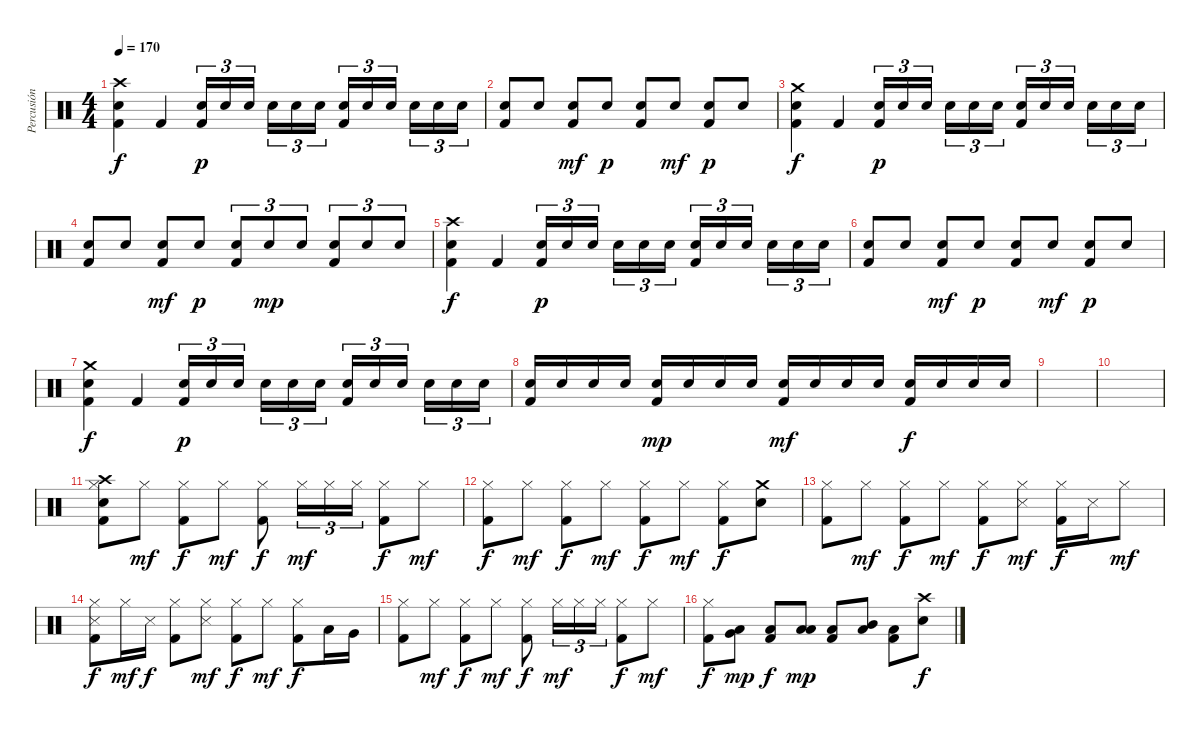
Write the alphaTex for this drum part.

\track ("Percusión" "Percusión") {instrument percussion}
\staff {score}
\articulation defaults
\ts (4 4)
\tempo 170
\clef neutral
\ks c
("Crash high (hit)" "Electric Snare (hit)" "Kick (hit) 2").4{dy f} "Kick (hit) 2".4 ("Electric Snare (hit)" "Kick (hit) 2").16{tu (3 2) dy p} "Electric Snare (hit)".16{tu (3 2)} "Electric Snare (hit)".16{tu (3 2) beam splitsecondary} "Electric Snare (hit)".16{tu (3 2)} "Electric Snare (hit)".16{tu (3 2)} "Electric Snare (hit)".16{tu (3 2)} ("Electric Snare (hit)" "Kick (hit) 2").16{tu (3 2)} "Electric Snare (hit)".16{tu (3 2)} "Electric Snare (hit)".16{tu (3 2) beam splitsecondary} "Electric Snare (hit)".16{tu (3 2)} "Electric Snare (hit)".16{tu (3 2)} "Electric Snare (hit)".16{tu (3 2)} |
("Electric Snare (hit)" "Kick (hit) 2").8 "Electric Snare (hit)".8 ("Electric Snare (hit)" "Kick (hit) 2").8{dy mf} "Electric Snare (hit)".8{dy p} ("Electric Snare (hit)" "Kick (hit) 2").8 "Electric Snare (hit)".8{dy mf} ("Electric Snare (hit)" "Kick (hit) 2").8{dy p} "Electric Snare (hit)".8 |
("Crash medium (hit)" "Electric Snare (hit)" "Kick (hit) 2").4{dy f} "Kick (hit) 2".4 ("Electric Snare (hit)" "Kick (hit) 2").16{tu (3 2) dy p} "Electric Snare (hit)".16{tu (3 2)} "Electric Snare (hit)".16{tu (3 2) beam splitsecondary} "Electric Snare (hit)".16{tu (3 2)} "Electric Snare (hit)".16{tu (3 2)} "Electric Snare (hit)".16{tu (3 2)} ("Electric Snare (hit)" "Kick (hit) 2").16{tu (3 2)} "Electric Snare (hit)".16{tu (3 2)} "Electric Snare (hit)".16{tu (3 2) beam splitsecondary} "Electric Snare (hit)".16{tu (3 2)} "Electric Snare (hit)".16{tu (3 2)} "Electric Snare (hit)".16{tu (3 2)} |
("Electric Snare (hit)" "Kick (hit) 2").8 "Electric Snare (hit)".8 ("Electric Snare (hit)" "Kick (hit) 2").8{dy mf} "Electric Snare (hit)".8{dy p} ("Electric Snare (hit)" "Kick (hit) 2").8{tu (3 2)} "Electric Snare (hit)".8{tu (3 2) dy mp} "Electric Snare (hit)".8{tu (3 2)} ("Electric Snare (hit)" "Kick (hit) 2").8{tu (3 2)} "Electric Snare (hit)".8{tu (3 2)} "Electric Snare (hit)".8{tu (3 2)} |
("Crash high (hit)" "Electric Snare (hit)" "Kick (hit) 2").4{dy f} "Kick (hit) 2".4 ("Electric Snare (hit)" "Kick (hit) 2").16{tu (3 2) dy p} "Electric Snare (hit)".16{tu (3 2)} "Electric Snare (hit)".16{tu (3 2) beam splitsecondary} "Electric Snare (hit)".16{tu (3 2)} "Electric Snare (hit)".16{tu (3 2)} "Electric Snare (hit)".16{tu (3 2)} ("Electric Snare (hit)" "Kick (hit) 2").16{tu (3 2)} "Electric Snare (hit)".16{tu (3 2)} "Electric Snare (hit)".16{tu (3 2) beam splitsecondary} "Electric Snare (hit)".16{tu (3 2)} "Electric Snare (hit)".16{tu (3 2)} "Electric Snare (hit)".16{tu (3 2)} |
("Electric Snare (hit)" "Kick (hit) 2").8 "Electric Snare (hit)".8 ("Electric Snare (hit)" "Kick (hit) 2").8{dy mf} "Electric Snare (hit)".8{dy p} ("Electric Snare (hit)" "Kick (hit) 2").8 "Electric Snare (hit)".8{dy mf} ("Electric Snare (hit)" "Kick (hit) 2").8{dy p} "Electric Snare (hit)".8 |
("Crash medium (hit)" "Electric Snare (hit)" "Kick (hit) 2").4{dy f} "Kick (hit) 2".4 ("Electric Snare (hit)" "Kick (hit) 2").16{tu (3 2) dy p} "Electric Snare (hit)".16{tu (3 2)} "Electric Snare (hit)".16{tu (3 2) beam splitsecondary} "Electric Snare (hit)".16{tu (3 2)} "Electric Snare (hit)".16{tu (3 2)} "Electric Snare (hit)".16{tu (3 2)} ("Electric Snare (hit)" "Kick (hit) 2").16{tu (3 2)} "Electric Snare (hit)".16{tu (3 2)} "Electric Snare (hit)".16{tu (3 2) beam splitsecondary} "Electric Snare (hit)".16{tu (3 2)} "Electric Snare (hit)".16{tu (3 2)} "Electric Snare (hit)".16{tu (3 2)} |
("Electric Snare (hit)" "Kick (hit) 2").16 "Electric Snare (hit)".16 "Electric Snare (hit)".16 "Electric Snare (hit)".16 ("Electric Snare (hit)" "Kick (hit) 2").16{dy mp} "Electric Snare (hit)".16 "Electric Snare (hit)".16 "Electric Snare (hit)".16 ("Electric Snare (hit)" "Kick (hit) 2").16{dy mf} "Electric Snare (hit)".16 "Electric Snare (hit)".16 "Electric Snare (hit)".16 ("Electric Snare (hit)" "Kick (hit) 2").16{dy f} "Electric Snare (hit)".16 "Electric Snare (hit)".16 "Electric Snare (hit)".16 |
|
|
("Crash high (hit)" "Hi-Hat (closed)" "Electric Snare (hit)" "Kick (hit) 2").8 "Hi-Hat (closed)".8{dy mf} ("Hi-Hat (closed)" "Kick (hit) 2").8{dy f} "Hi-Hat (closed)".8{dy mf} ("Hi-Hat (closed)" "Kick (hit) 2").8{dy f} "Hi-Hat (closed)".16{tu (3 2) dy mf} "Hi-Hat (closed)".16{tu (3 2)} "Hi-Hat (closed)".16{tu (3 2)} ("Hi-Hat (closed)" "Kick (hit) 2").8{dy f} "Hi-Hat (closed)".8{dy mf} |
("Hi-Hat (closed)" "Kick (hit) 2").8{dy f} "Hi-Hat (closed)".8{dy mf} ("Hi-Hat (closed)" "Kick (hit) 2").8{dy f} "Hi-Hat (closed)".8{dy mf} ("Hi-Hat (closed)" "Kick (hit) 2").8{dy f} "Hi-Hat (closed)".8{dy mf} ("Hi-Hat (closed)" "Kick (hit) 2").8{dy f} ("Crash medium (hit)" "Electric Snare (hit)").8 |
("Hi-Hat (closed)" "Kick (hit) 2").8 "Hi-Hat (closed)".8{dy mf} ("Hi-Hat (closed)" "Kick (hit) 2").8{dy f} "Hi-Hat (closed)".8{dy mf} ("Hi-Hat (closed)" "Kick (hit) 2").8{dy f} ("Hi-Hat (closed)" "Snare (side stick) 3").8{dy mf} ("Hi-Hat (closed)" "Kick (hit) 2").16{dy f} "Snare (side stick) 3".16 "Hi-Hat (closed)".8{dy mf} |
("Hi-Hat (closed)" "Kick (hit) 2" "Snare (side stick) 3").8{dy f} "Hi-Hat (closed)".16{dy mf} "Snare (side stick) 3".16{dy f} ("Hi-Hat (closed)" "Kick (hit) 2").8 ("Hi-Hat (closed)" "Snare (side stick) 3").8{dy mf} ("Hi-Hat (closed)" "Kick (hit) 2").8{dy f} "Hi-Hat (closed)".8{dy mf} ("Hi-Hat (closed)" "Kick (hit) 2").8{dy f} "Low Tom (hit)".16 "Very Low Tom (hit)".16 |
("Hi-Hat (closed)" "Kick (hit) 2").8 "Hi-Hat (closed)".8{dy mf} ("Hi-Hat (closed)" "Kick (hit) 2").8{dy f} "Hi-Hat (closed)".8{dy mf} ("Hi-Hat (closed)" "Kick (hit) 2").8{dy f} "Hi-Hat (closed)".16{tu (3 2) dy mf} "Hi-Hat (closed)".16{tu (3 2)} "Hi-Hat (closed)".16{tu (3 2)} ("Hi-Hat (closed)" "Kick (hit) 2").8{dy f} "Hi-Hat (closed)".8{dy mf} |
("Hi-Hat (closed)" "Kick (hit) 2").8{dy f} ("Low Floor Tom (hit)" "Very Low Tom (hit)").8{dy mp} ("Low Floor Tom (hit)" "Kick (hit) 2").8{dy f} ("Low Floor Tom (hit)" "Low Tom (hit)").8{dy mp} ("Low Floor Tom (hit)" "Kick (hit) 2").8 ("Low Floor Tom (hit)" "Mid Tom (hit)").8 ("Low Floor Tom (hit)" "Kick (hit) 2").8 ("Crash high (hit)" "Electric Snare (hit)").8{dy f}
